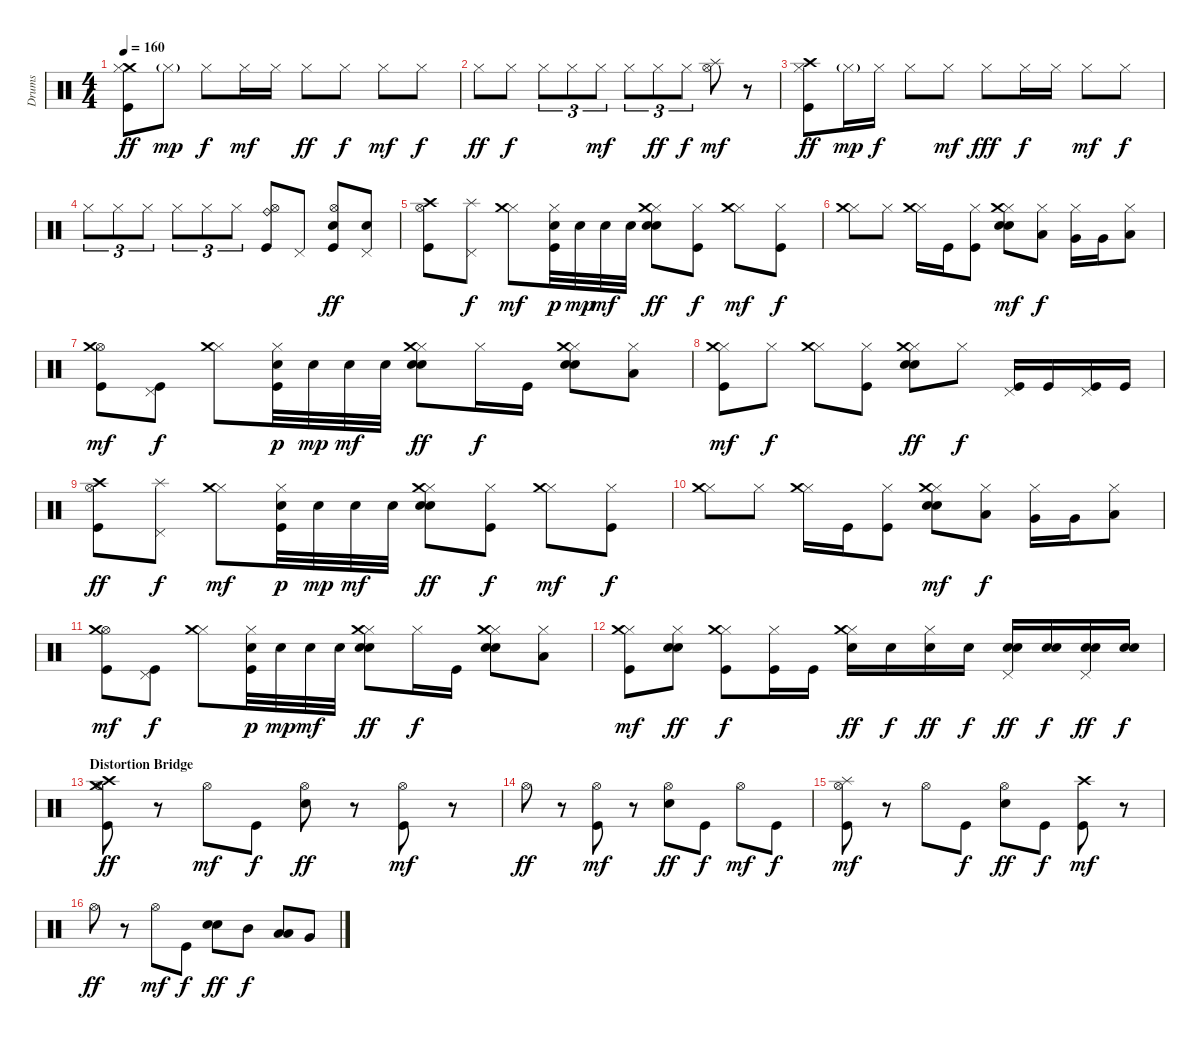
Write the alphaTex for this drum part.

\track ("Drums" "Drums") {instrument percussion}
\staff {score}
\articulation defaults
\ts (4 4)
\tempo 160
\clef neutral
\ks c
("Kick (hit)" "Crash medium (hit)" "Hi-Hat (closed)").8{dy ff} "Hi-Hat (closed)"{g}.8{dy mp} "Hi-Hat (closed)".8{dy f} "Hi-Hat (closed)".16{dy mf} "Hi-Hat (closed)".16 "Hi-Hat (closed)".8{dy ff} "Hi-Hat (closed)".8{dy f} "Hi-Hat (closed)".8{dy mf} "Hi-Hat (closed)".8{dy f} |
"Hi-Hat (closed)".8{dy ff} "Hi-Hat (closed)".8{dy f} "Hi-Hat (closed)".8{tu (3 2)} "Hi-Hat (closed)".8{tu (3 2)} "Hi-Hat (closed)".8{tu (3 2) dy mf} "Hi-Hat (closed)".8{tu (3 2)} "Hi-Hat (closed)".8{tu (3 2) dy ff} "Hi-Hat (closed)".8{tu (3 2) dy f} ("Splash (hit)" "Hi-Hat (open)").8{dy mf} r.8 |
("Kick (hit)" "Crash high (hit)" "Hi-Hat (closed)").8{dy ff} "Hi-Hat (closed)"{g}.16{dy mp} "Hi-Hat (closed)".16{dy f} "Hi-Hat (closed)".8 "Hi-Hat (closed)".8{dy mf} "Hi-Hat (closed)".8{dy fff} "Hi-Hat (closed)".16{dy f} "Hi-Hat (closed)".16 "Hi-Hat (closed)".8{dy mf} "Hi-Hat (closed)".8{dy f} |
"Hi-Hat (closed)".8{tu (3 2)} "Hi-Hat (closed)".8{tu (3 2)} "Hi-Hat (closed)".8{tu (3 2)} "Hi-Hat (closed)".8{tu (3 2)} "Hi-Hat (closed)".8{tu (3 2)} "Hi-Hat (closed)".8{tu (3 2)} ("Kick (hit)" "Ride (bell)" "Hi-Hat (open)").8 "Pedal Hi-Hat (hit)".8 ("Kick (hit)" "Electric Snare (hit)" "Hi-Hat (open)").8{dy ff} ("Electric Snare (hit)" "Pedal Hi-Hat (hit)").8 |
("Kick (hit)" "Hi-Hat (open)" "Crash high (hit)").8 ("Pedal Hi-Hat (hit)" "Splash (hit)").8{dy f} ("Hi-Hat (closed)" "Crash medium (hit)").8{dy mf} ("Kick (hit)" "Electric Snare (hit)" "Hi-Hat (closed)").32{dy p} "Electric Snare (hit)".32{dy mp} "Electric Snare (hit)".32{dy mf} "Electric Snare (hit)".32 ("Electric Snare (hit)" "Electric Snare (hit)" "Hi-Hat (closed)" "Crash medium (hit)").8{dy ff} ("Kick (hit)" "Hi-Hat (closed)").8{dy f} ("Hi-Hat (closed)" "Crash medium (hit)").8{dy mf} ("Kick (hit)" "Hi-Hat (closed)").8{dy f} |
("Hi-Hat (closed)" "Crash medium (hit)").8 "Hi-Hat (closed)".8 ("Hi-Hat (closed)" "Crash medium (hit)").16 "Kick (hit)".16 ("Kick (hit)" "Hi-Hat (closed)").8 ("Electric Snare (hit)" "Electric Snare (hit)" "Hi-Hat (closed)" "Crash medium (hit)").8{dy mf} ("Low Tom (hit)" "Hi-Hat (closed)").8{dy f} ("Very Low Tom (hit)" "Hi-Hat (closed)").16 "Very Low Tom (hit)".16 ("Low Floor Tom (hit)" "Hi-Hat (closed)").8 |
("Kick (hit)" "Hi-Hat (open)" "Crash medium (hit)").8{dy mf} ("Kick (hit)" "Pedal Hi-Hat (hit)").8{dy f} ("Hi-Hat (closed)" "Crash medium (hit)").8 ("Kick (hit)" "Electric Snare (hit)" "Hi-Hat (closed)").32{dy p} "Electric Snare (hit)".32{dy mp} "Electric Snare (hit)".32{dy mf} "Electric Snare (hit)".32 ("Electric Snare (hit)" "Electric Snare (hit)" "Hi-Hat (closed)" "Crash medium (hit)").8{dy ff} "Hi-Hat (closed)".16{dy f} "Kick (hit)".16 ("Electric Snare (hit)" "Electric Snare (hit)" "Hi-Hat (closed)" "Crash medium (hit)").8 ("Low Floor Tom (hit)" "Hi-Hat (closed)").8 |
("Kick (hit)" "Hi-Hat (closed)" "Crash medium (hit)").8{dy mf} "Hi-Hat (closed)".8{dy f} ("Hi-Hat (closed)" "Crash medium (hit)").8 ("Kick (hit)" "Hi-Hat (closed)").8 ("Electric Snare (hit)" "Electric Snare (hit)" "Hi-Hat (closed)" "Crash medium (hit)").8{dy ff} "Hi-Hat (closed)".8{dy f} ("Kick (hit)" "Pedal Hi-Hat (hit)").16 "Kick (hit)".16 ("Kick (hit)" "Pedal Hi-Hat (hit)").16 "Kick (hit)".16 |
("Kick (hit)" "Hi-Hat (open)" "Crash high (hit)").8{dy ff} ("Pedal Hi-Hat (hit)" "Splash (hit)").8{dy f} ("Hi-Hat (closed)" "Crash medium (hit)").8{dy mf} ("Kick (hit)" "Electric Snare (hit)" "Hi-Hat (closed)").32{dy p} "Electric Snare (hit)".32{dy mp} "Electric Snare (hit)".32{dy mf} "Electric Snare (hit)".32 ("Electric Snare (hit)" "Electric Snare (hit)" "Hi-Hat (closed)" "Crash medium (hit)").8{dy ff} ("Kick (hit)" "Hi-Hat (closed)").8{dy f} ("Hi-Hat (closed)" "Crash medium (hit)").8{dy mf} ("Kick (hit)" "Hi-Hat (closed)").8{dy f} |
("Hi-Hat (closed)" "Crash medium (hit)").8 "Hi-Hat (closed)".8 ("Hi-Hat (closed)" "Crash medium (hit)").16 "Kick (hit)".16 ("Kick (hit)" "Hi-Hat (closed)").8 ("Electric Snare (hit)" "Electric Snare (hit)" "Hi-Hat (closed)" "Crash medium (hit)").8{dy mf} ("Low Tom (hit)" "Hi-Hat (closed)").8{dy f} ("Very Low Tom (hit)" "Hi-Hat (closed)").16 "Very Low Tom (hit)".16 ("Low Floor Tom (hit)" "Hi-Hat (closed)").8 |
("Kick (hit)" "Hi-Hat (open)" "Crash medium (hit)").8{dy mf} ("Kick (hit)" "Pedal Hi-Hat (hit)").8{dy f} ("Hi-Hat (closed)" "Crash medium (hit)").8 ("Kick (hit)" "Electric Snare (hit)" "Hi-Hat (closed)").32{dy p} "Electric Snare (hit)".32{dy mp} "Electric Snare (hit)".32{dy mf} "Electric Snare (hit)".32 ("Electric Snare (hit)" "Electric Snare (hit)" "Hi-Hat (closed)" "Crash medium (hit)").8{dy ff} "Hi-Hat (closed)".16{dy f} "Kick (hit)".16 ("Electric Snare (hit)" "Electric Snare (hit)" "Hi-Hat (closed)" "Crash medium (hit)").8 ("Low Floor Tom (hit)" "Hi-Hat (closed)").8 |
("Kick (hit)" "Hi-Hat (closed)" "Crash medium (hit)").8{dy mf} ("Electric Snare (hit)" "Electric Snare (hit)" "Hi-Hat (closed)").8{dy ff} ("Kick (hit)" "Hi-Hat (closed)" "Crash medium (hit)").8{dy f} ("Kick (hit)" "Hi-Hat (closed)").16 "Kick (hit)".16 ("Electric Snare (hit)" "Hi-Hat (closed)" "Crash medium (hit)").16{dy ff} "Electric Snare (hit)".16{dy f} ("Electric Snare (hit)" "Hi-Hat (closed)").16{dy ff} "Electric Snare (hit)".16{dy f} ("Electric Snare (hit)" "Electric Snare (hit)" "Pedal Hi-Hat (hit)").16{dy ff} ("Electric Snare (hit)" "Electric Snare (hit)").16{dy f} ("Electric Snare (hit)" "Electric Snare (hit)" "Pedal Hi-Hat (hit)").16{dy ff} ("Electric Snare (hit)" "Electric Snare (hit)").16{dy f} |
\section ("" "Distortion Bridge")
("Kick (hit)" "Hi-Hat (open)" "Crash high (hit)" "Crash medium (hit)").8{dy ff} r.8 "Hi-Hat (open)".8{dy mf} "Kick (hit)".8{dy f} ("Electric Snare (hit)" "Hi-Hat (open)").8{dy ff} r.8 ("Kick (hit)" "Hi-Hat (open)").8{dy mf} r.8 |
"Hi-Hat (open)".8{dy ff} r.8 ("Kick (hit)" "Hi-Hat (open)").8{dy mf} r.8 ("Electric Snare (hit)" "Hi-Hat (open)").8{dy ff} "Kick (hit)".8{dy f} "Hi-Hat (open)".8{dy mf} "Kick (hit)".8{dy f} |
("Kick (hit)" "Hi-Hat (open)" "Splash (hit)").8{dy mf} r.8 "Hi-Hat (open)".8 "Kick (hit)".8{dy f} ("Electric Snare (hit)" "Hi-Hat (open)").8{dy ff} "Kick (hit)".8{dy f} ("Kick (hit)" "Crash high (hit)").8{dy mf} r.8 |
"Hi-Hat (open)".8{dy ff} r.8 "Hi-Hat (open)".8{dy mf} "Kick (hit)".8{dy f} ("Electric Snare (hit)" "Electric Snare (hit)").8{dy ff} "Mid Tom (hit)".8{dy f} ("Low Tom (hit)" "Low Tom (hit)").8 "Very Low Tom (hit)".8
